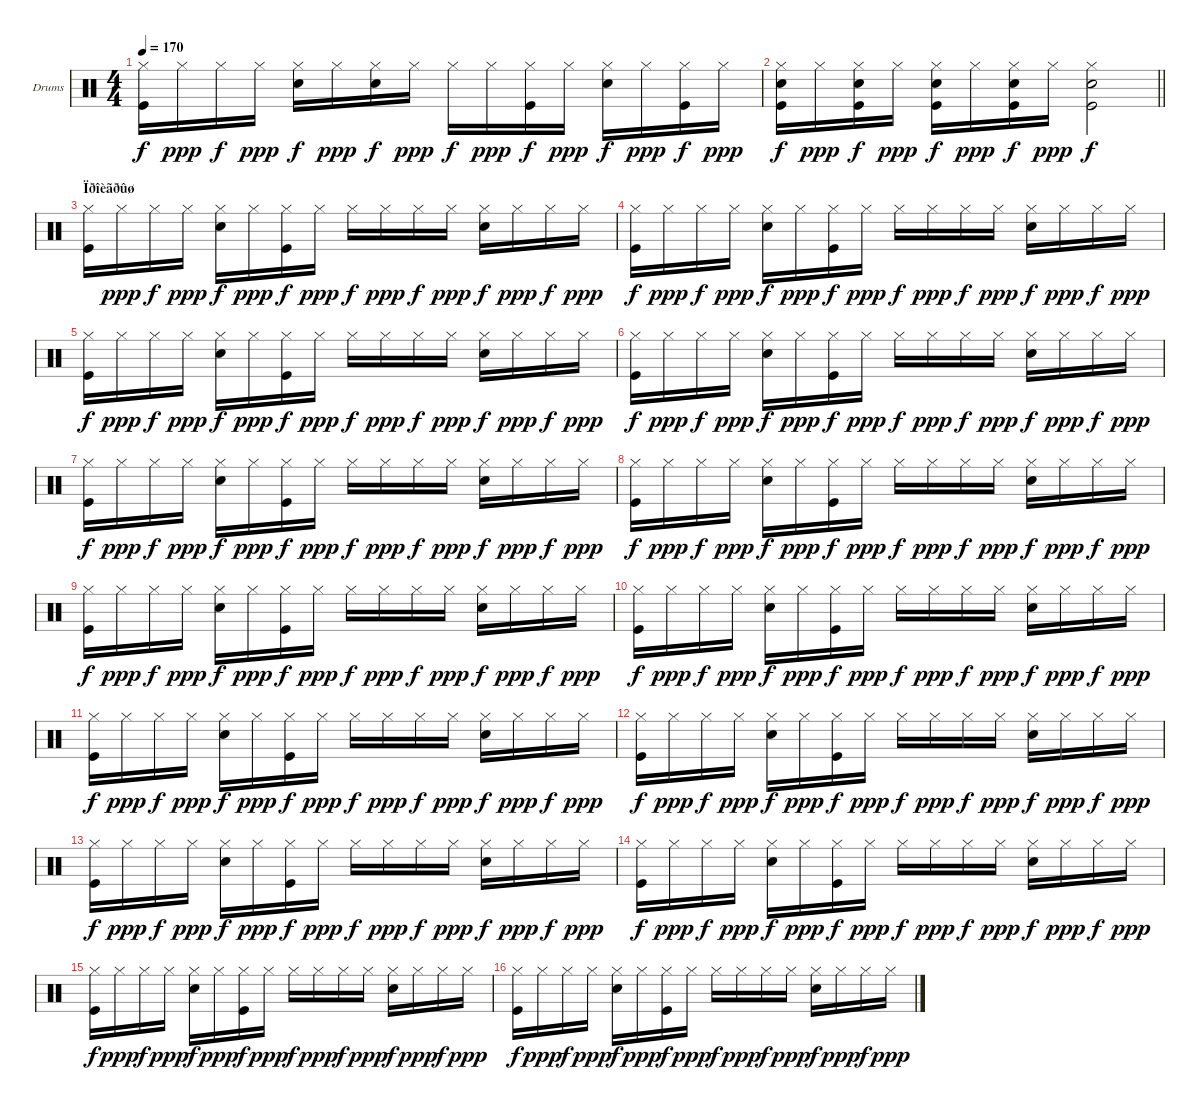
\bracketExtendMode groupsimilarinstruments
\firstSystemTrackNameOrientation horizontal
\otherSystemsTrackNameOrientation horizontal
\track ("Drumkit" "Drums") {instrument percussion}
\staff {score}
\articulation defaults
\ts (4 4)
\tempo 170
\clef neutral
\ks c
("Hi-Hat (closed)" "Kick (hit)").16{dy f} "Hi-Hat (closed)".16{dy ppp} "Hi-Hat (closed)".16{dy f} "Hi-Hat (closed)".16{dy ppp} ("Hi-Hat (closed)" "Snare (hit) 2").16{dy f} "Hi-Hat (closed)".16{dy ppp} ("Hi-Hat (closed)" "Snare (hit) 2").16{dy f} "Hi-Hat (closed)".16{dy ppp} "Hi-Hat (closed)".16{dy f} "Hi-Hat (closed)".16{dy ppp} ("Hi-Hat (closed)" "Kick (hit)").16{dy f} "Hi-Hat (closed)".16{dy ppp} ("Hi-Hat (closed)" "Snare (hit) 2").16{dy f} "Hi-Hat (closed)".16{dy ppp} ("Hi-Hat (closed)" "Kick (hit)").16{dy f} "Hi-Hat (closed)".16{dy ppp} |
\barLineRight lightlight
("Hi-Hat (closed)" "Snare (hit) 2" "Kick (hit)").16{dy f} "Hi-Hat (closed)".16{dy ppp} ("Hi-Hat (closed)" "Snare (hit) 2" "Kick (hit)").16{dy f} "Hi-Hat (closed)".16{dy ppp} ("Hi-Hat (closed)" "Kick (hit)" "Snare (hit) 2").16{dy f} "Hi-Hat (closed)".16{dy ppp} ("Hi-Hat (closed)" "Kick (hit)" "Snare (hit) 2").16{dy f} "Hi-Hat (closed)".16{dy ppp} ("Hi-Hat (closed)" "Snare (hit) 2" "Kick (hit)").2{dy f} |
\section ("" "Ïðîèãðûø")
("Hi-Hat (closed)" "Kick (hit)").16 "Hi-Hat (closed)".16{dy ppp} "Hi-Hat (closed)".16{dy f} "Hi-Hat (closed)".16{dy ppp} ("Hi-Hat (closed)" "Snare (hit) 2").16{dy f} "Hi-Hat (closed)".16{dy ppp} ("Hi-Hat (closed)" "Kick (hit)").16{dy f} "Hi-Hat (closed)".16{dy ppp} "Hi-Hat (closed)".16{dy f} "Hi-Hat (closed)".16{dy ppp} "Hi-Hat (closed)".16{dy f} "Hi-Hat (closed)".16{dy ppp} ("Hi-Hat (closed)" "Snare (hit) 2").16{dy f} "Hi-Hat (closed)".16{dy ppp} "Hi-Hat (closed)".16{dy f} "Hi-Hat (closed)".16{dy ppp} |
("Hi-Hat (closed)" "Kick (hit)").16{dy f} "Hi-Hat (closed)".16{dy ppp} "Hi-Hat (closed)".16{dy f} "Hi-Hat (closed)".16{dy ppp} ("Hi-Hat (closed)" "Snare (hit) 2").16{dy f} "Hi-Hat (closed)".16{dy ppp} ("Hi-Hat (closed)" "Kick (hit)").16{dy f} "Hi-Hat (closed)".16{dy ppp} "Hi-Hat (closed)".16{dy f} "Hi-Hat (closed)".16{dy ppp} "Hi-Hat (closed)".16{dy f} "Hi-Hat (closed)".16{dy ppp} ("Hi-Hat (closed)" "Snare (hit) 2").16{dy f} "Hi-Hat (closed)".16{dy ppp} "Hi-Hat (closed)".16{dy f} "Hi-Hat (closed)".16{dy ppp} |
("Hi-Hat (closed)" "Kick (hit)").16{dy f} "Hi-Hat (closed)".16{dy ppp} "Hi-Hat (closed)".16{dy f} "Hi-Hat (closed)".16{dy ppp} ("Hi-Hat (closed)" "Snare (hit) 2").16{dy f} "Hi-Hat (closed)".16{dy ppp} ("Hi-Hat (closed)" "Kick (hit)").16{dy f} "Hi-Hat (closed)".16{dy ppp} "Hi-Hat (closed)".16{dy f} "Hi-Hat (closed)".16{dy ppp} "Hi-Hat (closed)".16{dy f} "Hi-Hat (closed)".16{dy ppp} ("Hi-Hat (closed)" "Snare (hit) 2").16{dy f} "Hi-Hat (closed)".16{dy ppp} "Hi-Hat (closed)".16{dy f} "Hi-Hat (closed)".16{dy ppp} |
("Hi-Hat (closed)" "Kick (hit)").16{dy f} "Hi-Hat (closed)".16{dy ppp} "Hi-Hat (closed)".16{dy f} "Hi-Hat (closed)".16{dy ppp} ("Hi-Hat (closed)" "Snare (hit) 2").16{dy f} "Hi-Hat (closed)".16{dy ppp} ("Hi-Hat (closed)" "Kick (hit)").16{dy f} "Hi-Hat (closed)".16{dy ppp} "Hi-Hat (closed)".16{dy f} "Hi-Hat (closed)".16{dy ppp} "Hi-Hat (closed)".16{dy f} "Hi-Hat (closed)".16{dy ppp} ("Hi-Hat (closed)" "Snare (hit) 2").16{dy f} "Hi-Hat (closed)".16{dy ppp} "Hi-Hat (closed)".16{dy f} "Hi-Hat (closed)".16{dy ppp} |
("Hi-Hat (closed)" "Kick (hit)").16{dy f} "Hi-Hat (closed)".16{dy ppp} "Hi-Hat (closed)".16{dy f} "Hi-Hat (closed)".16{dy ppp} ("Hi-Hat (closed)" "Snare (hit) 2").16{dy f} "Hi-Hat (closed)".16{dy ppp} ("Hi-Hat (closed)" "Kick (hit)").16{dy f} "Hi-Hat (closed)".16{dy ppp} "Hi-Hat (closed)".16{dy f} "Hi-Hat (closed)".16{dy ppp} "Hi-Hat (closed)".16{dy f} "Hi-Hat (closed)".16{dy ppp} ("Hi-Hat (closed)" "Snare (hit) 2").16{dy f} "Hi-Hat (closed)".16{dy ppp} "Hi-Hat (closed)".16{dy f} "Hi-Hat (closed)".16{dy ppp} |
("Hi-Hat (closed)" "Kick (hit)").16{dy f} "Hi-Hat (closed)".16{dy ppp} "Hi-Hat (closed)".16{dy f} "Hi-Hat (closed)".16{dy ppp} ("Hi-Hat (closed)" "Snare (hit) 2").16{dy f} "Hi-Hat (closed)".16{dy ppp} ("Hi-Hat (closed)" "Kick (hit)").16{dy f} "Hi-Hat (closed)".16{dy ppp} "Hi-Hat (closed)".16{dy f} "Hi-Hat (closed)".16{dy ppp} "Hi-Hat (closed)".16{dy f} "Hi-Hat (closed)".16{dy ppp} ("Hi-Hat (closed)" "Snare (hit) 2").16{dy f} "Hi-Hat (closed)".16{dy ppp} "Hi-Hat (closed)".16{dy f} "Hi-Hat (closed)".16{dy ppp} |
("Hi-Hat (closed)" "Kick (hit)").16{dy f} "Hi-Hat (closed)".16{dy ppp} "Hi-Hat (closed)".16{dy f} "Hi-Hat (closed)".16{dy ppp} ("Hi-Hat (closed)" "Snare (hit) 2").16{dy f} "Hi-Hat (closed)".16{dy ppp} ("Hi-Hat (closed)" "Kick (hit)").16{dy f} "Hi-Hat (closed)".16{dy ppp} "Hi-Hat (closed)".16{dy f} "Hi-Hat (closed)".16{dy ppp} "Hi-Hat (closed)".16{dy f} "Hi-Hat (closed)".16{dy ppp} ("Hi-Hat (closed)" "Snare (hit) 2").16{dy f} "Hi-Hat (closed)".16{dy ppp} "Hi-Hat (closed)".16{dy f} "Hi-Hat (closed)".16{dy ppp} |
("Hi-Hat (closed)" "Kick (hit)").16{dy f} "Hi-Hat (closed)".16{dy ppp} "Hi-Hat (closed)".16{dy f} "Hi-Hat (closed)".16{dy ppp} ("Hi-Hat (closed)" "Snare (hit) 2").16{dy f} "Hi-Hat (closed)".16{dy ppp} ("Hi-Hat (closed)" "Kick (hit)").16{dy f} "Hi-Hat (closed)".16{dy ppp} "Hi-Hat (closed)".16{dy f} "Hi-Hat (closed)".16{dy ppp} "Hi-Hat (closed)".16{dy f} "Hi-Hat (closed)".16{dy ppp} ("Hi-Hat (closed)" "Snare (hit) 2").16{dy f} "Hi-Hat (closed)".16{dy ppp} "Hi-Hat (closed)".16{dy f} "Hi-Hat (closed)".16{dy ppp} |
("Hi-Hat (closed)" "Kick (hit)").16{dy f} "Hi-Hat (closed)".16{dy ppp} "Hi-Hat (closed)".16{dy f} "Hi-Hat (closed)".16{dy ppp} ("Hi-Hat (closed)" "Snare (hit) 2").16{dy f} "Hi-Hat (closed)".16{dy ppp} ("Hi-Hat (closed)" "Kick (hit)").16{dy f} "Hi-Hat (closed)".16{dy ppp} "Hi-Hat (closed)".16{dy f} "Hi-Hat (closed)".16{dy ppp} "Hi-Hat (closed)".16{dy f} "Hi-Hat (closed)".16{dy ppp} ("Hi-Hat (closed)" "Snare (hit) 2").16{dy f} "Hi-Hat (closed)".16{dy ppp} "Hi-Hat (closed)".16{dy f} "Hi-Hat (closed)".16{dy ppp} |
("Hi-Hat (closed)" "Kick (hit)").16{dy f} "Hi-Hat (closed)".16{dy ppp} "Hi-Hat (closed)".16{dy f} "Hi-Hat (closed)".16{dy ppp} ("Hi-Hat (closed)" "Snare (hit) 2").16{dy f} "Hi-Hat (closed)".16{dy ppp} ("Hi-Hat (closed)" "Kick (hit)").16{dy f} "Hi-Hat (closed)".16{dy ppp} "Hi-Hat (closed)".16{dy f} "Hi-Hat (closed)".16{dy ppp} "Hi-Hat (closed)".16{dy f} "Hi-Hat (closed)".16{dy ppp} ("Hi-Hat (closed)" "Snare (hit) 2").16{dy f} "Hi-Hat (closed)".16{dy ppp} "Hi-Hat (closed)".16{dy f} "Hi-Hat (closed)".16{dy ppp} |
("Hi-Hat (closed)" "Kick (hit)").16{dy f} "Hi-Hat (closed)".16{dy ppp} "Hi-Hat (closed)".16{dy f} "Hi-Hat (closed)".16{dy ppp} ("Hi-Hat (closed)" "Snare (hit) 2").16{dy f} "Hi-Hat (closed)".16{dy ppp} ("Hi-Hat (closed)" "Kick (hit)").16{dy f} "Hi-Hat (closed)".16{dy ppp} "Hi-Hat (closed)".16{dy f} "Hi-Hat (closed)".16{dy ppp} "Hi-Hat (closed)".16{dy f} "Hi-Hat (closed)".16{dy ppp} ("Hi-Hat (closed)" "Snare (hit) 2").16{dy f} "Hi-Hat (closed)".16{dy ppp} "Hi-Hat (closed)".16{dy f} "Hi-Hat (closed)".16{dy ppp} |
("Hi-Hat (closed)" "Kick (hit)").16{dy f} "Hi-Hat (closed)".16{dy ppp} "Hi-Hat (closed)".16{dy f} "Hi-Hat (closed)".16{dy ppp} ("Hi-Hat (closed)" "Snare (hit) 2").16{dy f} "Hi-Hat (closed)".16{dy ppp} ("Hi-Hat (closed)" "Kick (hit)").16{dy f} "Hi-Hat (closed)".16{dy ppp} "Hi-Hat (closed)".16{dy f} "Hi-Hat (closed)".16{dy ppp} "Hi-Hat (closed)".16{dy f} "Hi-Hat (closed)".16{dy ppp} ("Hi-Hat (closed)" "Snare (hit) 2").16{dy f} "Hi-Hat (closed)".16{dy ppp} "Hi-Hat (closed)".16{dy f} "Hi-Hat (closed)".16{dy ppp} |
("Hi-Hat (closed)" "Kick (hit)").16{dy f} "Hi-Hat (closed)".16{dy ppp} "Hi-Hat (closed)".16{dy f} "Hi-Hat (closed)".16{dy ppp} ("Hi-Hat (closed)" "Snare (hit) 2").16{dy f} "Hi-Hat (closed)".16{dy ppp} ("Hi-Hat (closed)" "Kick (hit)").16{dy f} "Hi-Hat (closed)".16{dy ppp} "Hi-Hat (closed)".16{dy f} "Hi-Hat (closed)".16{dy ppp} "Hi-Hat (closed)".16{dy f} "Hi-Hat (closed)".16{dy ppp} ("Hi-Hat (closed)" "Snare (hit) 2").16{dy f} "Hi-Hat (closed)".16{dy ppp} "Hi-Hat (closed)".16{dy f} "Hi-Hat (closed)".16{dy ppp} |
("Hi-Hat (closed)" "Kick (hit)").16{dy f} "Hi-Hat (closed)".16{dy ppp} "Hi-Hat (closed)".16{dy f} "Hi-Hat (closed)".16{dy ppp} ("Hi-Hat (closed)" "Snare (hit) 2").16{dy f} "Hi-Hat (closed)".16{dy ppp} ("Hi-Hat (closed)" "Kick (hit)").16{dy f} "Hi-Hat (closed)".16{dy ppp} "Hi-Hat (closed)".16{dy f} "Hi-Hat (closed)".16{dy ppp} "Hi-Hat (closed)".16{dy f} "Hi-Hat (closed)".16{dy ppp} ("Hi-Hat (closed)" "Snare (hit) 2").16{dy f} "Hi-Hat (closed)".16{dy ppp} "Hi-Hat (closed)".16{dy f} "Hi-Hat (closed)".16{dy ppp}
